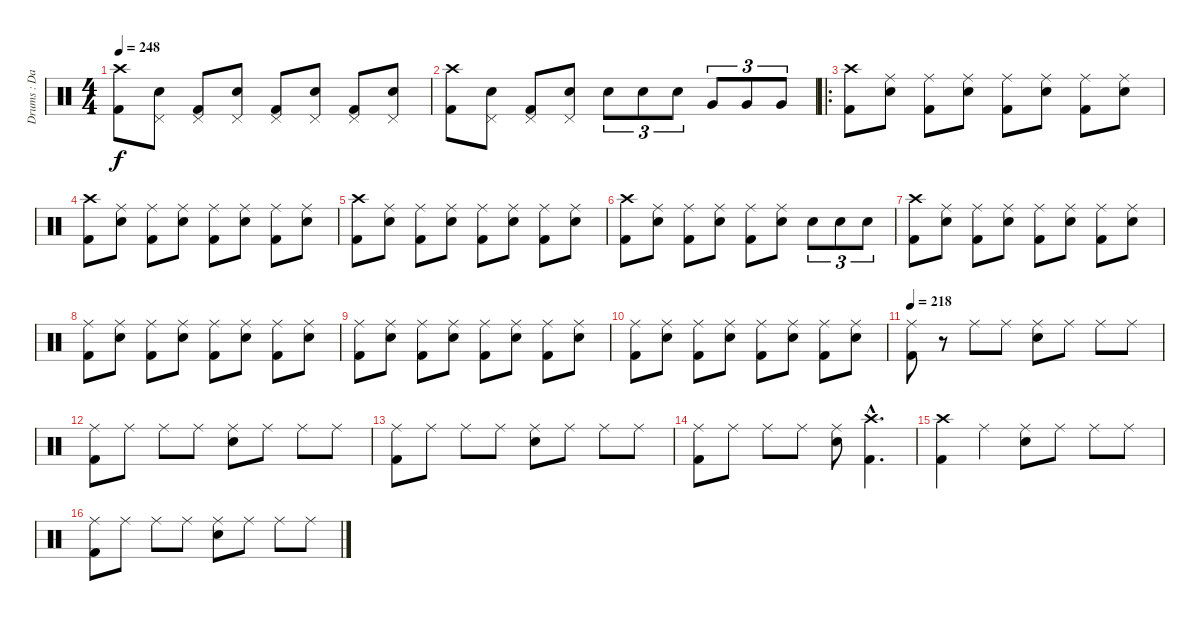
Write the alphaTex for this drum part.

\track ("Drums : Dave Lombardo" "Drums : Da") {instrument percussion}
\staff {score}
\articulation defaults
\ts (4 4)
\tempo 248
\clef neutral
\ks c
("Crash high (hit)" "Kick (hit) 2").8{dy f} ("Pedal Hi-Hat (hit)" "Electric Snare (hit)").8 ("Pedal Hi-Hat (hit)" "Kick (hit) 2").8 ("Pedal Hi-Hat (hit)" "Electric Snare (hit)").8 ("Pedal Hi-Hat (hit)" "Kick (hit) 2").8 ("Pedal Hi-Hat (hit)" "Electric Snare (hit)").8 ("Pedal Hi-Hat (hit)" "Kick (hit) 2").8 ("Pedal Hi-Hat (hit)" "Electric Snare (hit)").8 |
("Crash high (hit)" "Kick (hit) 2").8 ("Pedal Hi-Hat (hit)" "Electric Snare (hit)").8 ("Pedal Hi-Hat (hit)" "Kick (hit) 2").8 ("Pedal Hi-Hat (hit)" "Electric Snare (hit)").8 "Electric Snare (hit)".8{tu (3 2)} "Electric Snare (hit)".8{tu (3 2)} "Electric Snare (hit)".8{tu (3 2)} "Very Low Tom (hit)".8{tu (3 2)} "Very Low Tom (hit)".8{tu (3 2)} "Very Low Tom (hit)".8{tu (3 2)} |
\ro
("Crash high (hit)" "Kick (hit) 2").8 ("Ride (middle)" "Electric Snare (hit)").8 ("Ride (middle)" "Kick (hit) 2").8 ("Ride (middle)" "Electric Snare (hit)").8 ("Ride (middle)" "Kick (hit) 2").8 ("Ride (middle)" "Electric Snare (hit)").8 ("Ride (middle)" "Kick (hit) 2").8 ("Ride (middle)" "Electric Snare (hit)").8 |
("Crash high (hit)" "Kick (hit) 2").8 ("Ride (middle)" "Electric Snare (hit)").8 ("Ride (middle)" "Kick (hit) 2").8 ("Ride (middle)" "Electric Snare (hit)").8 ("Ride (middle)" "Kick (hit) 2").8 ("Ride (middle)" "Electric Snare (hit)").8 ("Ride (middle)" "Kick (hit) 2").8 ("Ride (middle)" "Electric Snare (hit)").8 |
("Crash high (hit)" "Kick (hit) 2").8 ("Ride (middle)" "Electric Snare (hit)").8 ("Ride (middle)" "Kick (hit) 2").8 ("Ride (middle)" "Electric Snare (hit)").8 ("Ride (middle)" "Kick (hit) 2").8 ("Ride (middle)" "Electric Snare (hit)").8 ("Ride (middle)" "Kick (hit) 2").8 ("Ride (middle)" "Electric Snare (hit)").8 |
("Crash high (hit)" "Kick (hit) 2").8 ("Ride (middle)" "Electric Snare (hit)").8 ("Ride (middle)" "Kick (hit) 2").8 ("Ride (middle)" "Electric Snare (hit)").8 ("Ride (middle)" "Kick (hit) 2").8 ("Ride (middle)" "Electric Snare (hit)").8 "Electric Snare (hit)".8{tu (3 2)} "Electric Snare (hit)".8{tu (3 2)} "Electric Snare (hit)".8{tu (3 2)} |
("Crash high (hit)" "Kick (hit) 2").8 ("Ride (middle)" "Electric Snare (hit)").8 ("Ride (middle)" "Kick (hit) 2").8 ("Ride (middle)" "Electric Snare (hit)").8 ("Ride (middle)" "Kick (hit) 2").8 ("Ride (middle)" "Electric Snare (hit)").8 ("Ride (middle)" "Kick (hit) 2").8 ("Ride (middle)" "Electric Snare (hit)").8 |
("Ride (middle)" "Kick (hit) 2").8 ("Ride (middle)" "Electric Snare (hit)").8 ("Ride (middle)" "Kick (hit) 2").8 ("Ride (middle)" "Electric Snare (hit)").8 ("Ride (middle)" "Kick (hit) 2").8 ("Ride (middle)" "Electric Snare (hit)").8 ("Ride (middle)" "Kick (hit) 2").8 ("Ride (middle)" "Electric Snare (hit)").8 |
("Ride (middle)" "Kick (hit) 2").8 ("Ride (middle)" "Electric Snare (hit)").8 ("Ride (middle)" "Kick (hit) 2").8 ("Ride (middle)" "Electric Snare (hit)").8 ("Ride (middle)" "Kick (hit) 2").8 ("Ride (middle)" "Electric Snare (hit)").8 ("Ride (middle)" "Kick (hit) 2").8 ("Ride (middle)" "Electric Snare (hit)").8 |
("Ride (middle)" "Kick (hit) 2").8 ("Ride (middle)" "Electric Snare (hit)").8 ("Ride (middle)" "Kick (hit) 2").8 ("Ride (middle)" "Electric Snare (hit)").8 ("Ride (middle)" "Kick (hit) 2").8 ("Ride (middle)" "Electric Snare (hit)").8 ("Ride (middle)" "Kick (hit) 2").8 ("Ride (middle)" "Electric Snare (hit)").8 |
\tempo 218
("Ride (middle)" "Kick (hit) 2").8 r.8 "Ride (middle)".8 "Ride (middle)".8 ("Ride (middle)" "Electric Snare (hit)").8 "Ride (middle)".8 "Ride (middle)".8 "Ride (middle)".8 |
("Ride (middle)" "Kick (hit) 2").8 "Ride (middle)".8 "Ride (middle)".8 "Ride (middle)".8 ("Ride (middle)" "Electric Snare (hit)").8 "Ride (middle)".8 "Ride (middle)".8 "Ride (middle)".8 |
("Ride (middle)" "Kick (hit) 2").8 "Ride (middle)".8 "Ride (middle)".8 "Ride (middle)".8 ("Ride (middle)" "Electric Snare (hit)").8 "Ride (middle)".8 "Ride (middle)".8 "Ride (middle)".8 |
("Ride (middle)" "Kick (hit) 2").8 "Ride (middle)".8 "Ride (middle)".8 "Ride (middle)".8 ("Ride (middle)" "Electric Snare (hit)").8 ("Crash high (hit)"{hac} "Kick (hit) 2"{hac}).4{d} |
("Crash high (hit)" "Kick (hit) 2").4 "Ride (middle)".4 ("Ride (middle)" "Electric Snare (hit)").8 "Ride (middle)".8 "Ride (middle)".8 "Ride (middle)".8 |
("Ride (middle)" "Kick (hit) 2").8 "Ride (middle)".8 "Ride (middle)".8 "Ride (middle)".8 ("Ride (middle)" "Electric Snare (hit)").8 "Ride (middle)".8 "Ride (middle)".8 "Ride (middle)".8
